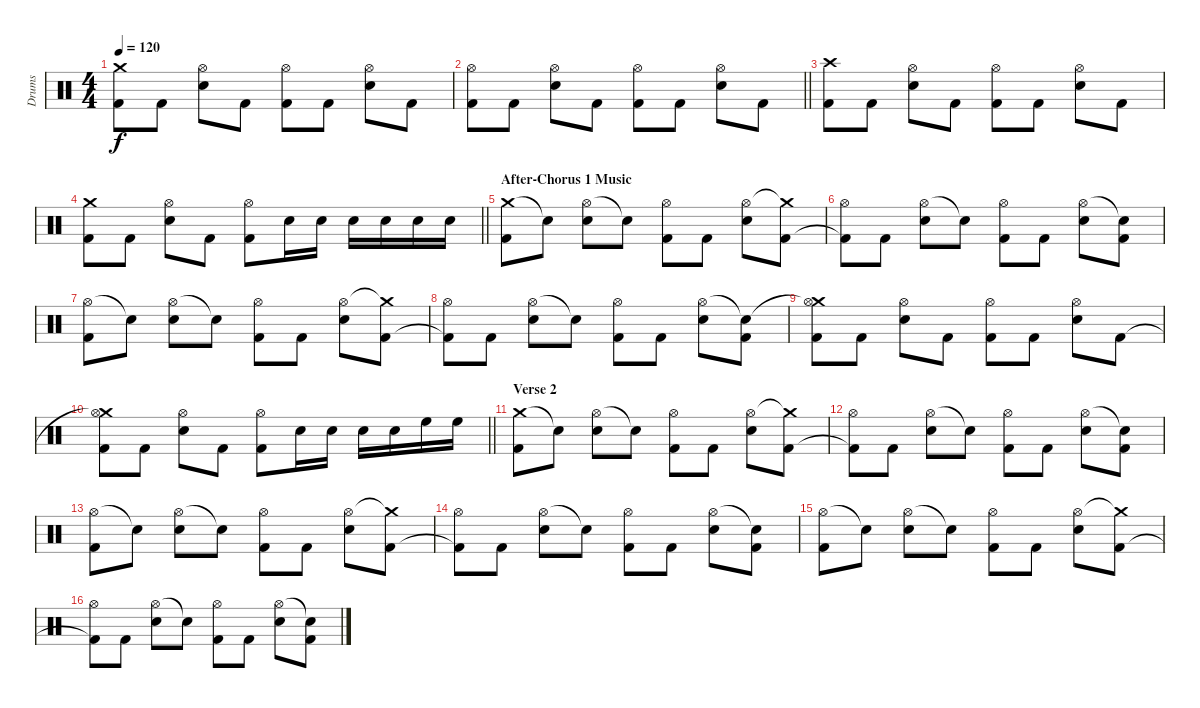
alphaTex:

\track ("Drums" "Drums") {instrument percussion}
\staff {score}
\articulation defaults
\ts (4 4)
\tempo 120
\clef neutral
\ks c
("Crash medium (hit)" "Kick (hit) 2").8{dy f} "Kick (hit) 2".8 ("Hi-Hat (open)" "Snare (hit) 2").8 "Kick (hit) 2".8 ("Hi-Hat (open)" "Kick (hit) 2").8 "Kick (hit) 2".8 ("Hi-Hat (open)" "Snare (hit) 2").8 "Kick (hit) 2".8 |
\barLineRight lightlight
("Hi-Hat (open)" "Kick (hit) 2").8 "Kick (hit) 2".8 ("Hi-Hat (open)" "Snare (hit) 2").8 "Kick (hit) 2".8 ("Hi-Hat (open)" "Kick (hit) 2").8 "Kick (hit) 2".8 ("Hi-Hat (open)" "Snare (hit) 2").8 "Kick (hit) 2".8 |
("Crash high (hit)" "Kick (hit) 2").8 "Kick (hit) 2".8 ("Hi-Hat (open)" "Snare (hit) 2").8 "Kick (hit) 2".8 ("Hi-Hat (open)" "Kick (hit) 2").8 "Kick (hit) 2".8 ("Hi-Hat (open)" "Snare (hit) 2").8 "Kick (hit) 2".8 |
\barLineRight lightlight
("Crash medium (hit)" "Kick (hit) 2").8 "Kick (hit) 2".8 ("Hi-Hat (open)" "Snare (hit) 2").8 "Kick (hit) 2".8 ("Hi-Hat (open)" "Kick (hit) 2").8 "Snare (hit) 2".16 "Snare (hit) 2".16 "Snare (hit) 2".16 "Snare (hit) 2".16 "Snare (hit) 2".16 "Snare (hit) 2".16 |
\section ("" "After-Chorus 1 Music")
("Crash medium (hit)" "Kick (hit) 2").8 "Snare (hit)"{t}.8 ("Hi-Hat (open)" "Snare (hit) 2").8 "Snare (hit)"{t}.8 ("Hi-Hat (open)" "Kick (hit) 2").8 "Kick (hit) 2".8 ("Hi-Hat (open)" "Snare (hit) 2").8 ("Crash medium (hit)"{t} "Kick (hit) 2").8 |
("Hi-Hat (open)" "Kick (hit) 2"{t}).8 "Kick (hit) 2".8 ("Hi-Hat (open)" "Snare (hit) 2").8 "Snare (hit)"{t}.8 ("Hi-Hat (open)" "Kick (hit) 2").8 "Kick (hit) 2".8 ("Hi-Hat (open)" "Snare (hit) 2").8 ("Snare (hit)"{t} "Kick (hit) 2").8 |
("Hi-Hat (open)" "Kick (hit) 2").8 "Snare (hit)"{t}.8 ("Hi-Hat (open)" "Snare (hit) 2").8 "Snare (hit)"{t}.8 ("Hi-Hat (open)" "Kick (hit) 2").8 "Kick (hit) 2".8 ("Hi-Hat (open)" "Snare (hit) 2").8 ("Crash medium (hit)"{t} "Kick (hit) 2").8 |
("Hi-Hat (open)" "Kick (hit) 2"{t}).8 "Kick (hit) 2".8 ("Hi-Hat (open)" "Snare (hit) 2").8 "Snare (hit)"{t}.8 ("Hi-Hat (open)" "Kick (hit) 2").8 "Kick (hit) 2".8 ("Hi-Hat (open)" "Snare (hit) 2").8 ("Snare (hit)"{t} "Kick (hit) 2").8 |
("Crash medium (hit)"{t} "Hi-Hat (open)" "Kick (hit) 2").8 "Kick (hit) 2".8 ("Hi-Hat (open)" "Snare (hit) 2").8 "Kick (hit) 2".8 ("Hi-Hat (open)" "Kick (hit) 2").8 "Kick (hit) 2".8 ("Hi-Hat (open)" "Snare (hit) 2").8 "Kick (hit) 2".8 |
\barLineRight lightlight
("Crash medium (hit)"{t} "Hi-Hat (open)" "Kick (hit) 2").8 "Kick (hit) 2".8 ("Hi-Hat (open)" "Snare (hit) 2").8 "Kick (hit) 2".8 ("Hi-Hat (open)" "Kick (hit) 2").8 "Snare (hit) 2".16 "Snare (hit) 2".16 "Snare (hit) 2".16 "Snare (hit) 2".16 "High Floor Tom (hit)".16 "High Floor Tom (hit)".16 |
\section ("" "Verse 2")
("Crash medium (hit)" "Kick (hit) 2").8 "Snare (hit)"{t}.8 ("Hi-Hat (open)" "Snare (hit) 2").8 "Snare (hit)"{t}.8 ("Hi-Hat (open)" "Kick (hit) 2").8 "Kick (hit) 2".8 ("Hi-Hat (open)" "Snare (hit) 2").8 ("Crash medium (hit)"{t} "Kick (hit) 2").8 |
("Hi-Hat (open)" "Kick (hit) 2"{t}).8 "Kick (hit) 2".8 ("Hi-Hat (open)" "Snare (hit) 2").8 "Snare (hit)"{t}.8 ("Hi-Hat (open)" "Kick (hit) 2").8 "Kick (hit) 2".8 ("Hi-Hat (open)" "Snare (hit) 2").8 ("Snare (hit)"{t} "Kick (hit) 2").8 |
("Hi-Hat (open)" "Kick (hit) 2").8 "Snare (hit)"{t}.8 ("Hi-Hat (open)" "Snare (hit) 2").8 "Snare (hit)"{t}.8 ("Hi-Hat (open)" "Kick (hit) 2").8 "Kick (hit) 2".8 ("Hi-Hat (open)" "Snare (hit) 2").8 ("Crash medium (hit)"{t} "Kick (hit) 2").8 |
("Hi-Hat (open)" "Kick (hit) 2"{t}).8 "Kick (hit) 2".8 ("Hi-Hat (open)" "Snare (hit) 2").8 "Snare (hit)"{t}.8 ("Hi-Hat (open)" "Kick (hit) 2").8 "Kick (hit) 2".8 ("Hi-Hat (open)" "Snare (hit) 2").8 ("Snare (hit)"{t} "Kick (hit) 2").8 |
("Hi-Hat (open)" "Kick (hit) 2").8 "Snare (hit)"{t}.8 ("Hi-Hat (open)" "Snare (hit) 2").8 "Snare (hit)"{t}.8 ("Hi-Hat (open)" "Kick (hit) 2").8 "Kick (hit) 2".8 ("Hi-Hat (open)" "Snare (hit) 2").8 ("Crash medium (hit)"{t} "Kick (hit) 2").8 |
("Hi-Hat (open)" "Kick (hit) 2"{t}).8 "Kick (hit) 2".8 ("Hi-Hat (open)" "Snare (hit) 2").8 "Snare (hit)"{t}.8 ("Hi-Hat (open)" "Kick (hit) 2").8 "Kick (hit) 2".8 ("Hi-Hat (open)" "Snare (hit) 2").8 ("Snare (hit)"{t} "Kick (hit) 2").8
